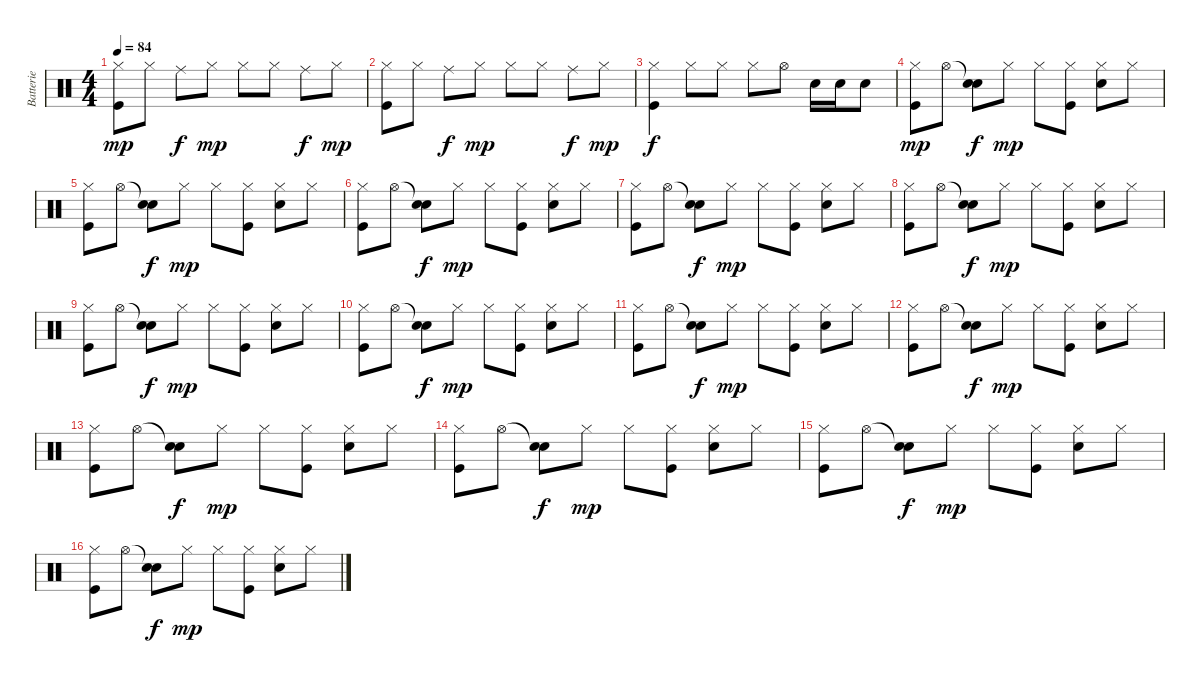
\track ("Batterie" "Batterie") {instrument percussion}
\staff {score}
\articulation defaults
\ts (4 4)
\tempo 84
\clef neutral
\ks c
("Hi-Hat (closed)" "Kick (hit)").8{dy mp} "Hi-Hat (closed)".8 "Ride (middle)".8{dy f} "Hi-Hat (closed)".8{dy mp} "Hi-Hat (closed)".8 "Hi-Hat (closed)".8 "Ride (middle)".8{dy f} "Hi-Hat (closed)".8{dy mp} |
("Hi-Hat (closed)" "Kick (hit)").8 "Hi-Hat (closed)".8 "Ride (middle)".8{dy f} "Hi-Hat (closed)".8{dy mp} "Hi-Hat (closed)".8 "Hi-Hat (closed)".8 "Ride (middle)".8{dy f} "Hi-Hat (closed)".8{dy mp} |
("Hi-Hat (closed)" "Kick (hit)").4{dy f} "Hi-Hat (closed)".8 "Hi-Hat (closed)".8 "Hi-Hat (closed)".8 "Hi-Hat (open)".8 "Snare (hit) 2".16 "Snare (hit) 2".16 "Snare (hit) 2".8 |
("Hi-Hat (closed)" "Kick (hit)").8{dy mp} "Hi-Hat (open)".8 ("Snare (hit)"{t} "Snare (hit) 2").8{dy f} "Hi-Hat (closed)".8{dy mp} "Hi-Hat (closed)".8 ("Hi-Hat (closed)" "Kick (hit)").8 ("Hi-Hat (closed)" "Snare (hit) 2").8 "Hi-Hat (closed)".8 |
("Hi-Hat (closed)" "Kick (hit)").8 "Hi-Hat (open)".8 ("Snare (hit)"{t} "Snare (hit) 2").8{dy f} "Hi-Hat (closed)".8{dy mp} "Hi-Hat (closed)".8 ("Hi-Hat (closed)" "Kick (hit)").8 ("Hi-Hat (closed)" "Snare (hit) 2").8 "Hi-Hat (closed)".8 |
("Hi-Hat (closed)" "Kick (hit)").8 "Hi-Hat (open)".8 ("Snare (hit)"{t} "Snare (hit) 2").8{dy f} "Hi-Hat (closed)".8{dy mp} "Hi-Hat (closed)".8 ("Hi-Hat (closed)" "Kick (hit)").8 ("Hi-Hat (closed)" "Snare (hit) 2").8 "Hi-Hat (closed)".8 |
("Hi-Hat (closed)" "Kick (hit)").8 "Hi-Hat (open)".8 ("Snare (hit)"{t} "Snare (hit) 2").8{dy f} "Hi-Hat (closed)".8{dy mp} "Hi-Hat (closed)".8 ("Hi-Hat (closed)" "Kick (hit)").8 ("Hi-Hat (closed)" "Snare (hit) 2").8 "Hi-Hat (closed)".8 |
("Hi-Hat (closed)" "Kick (hit)").8 "Hi-Hat (open)".8 ("Snare (hit)"{t} "Snare (hit) 2").8{dy f} "Hi-Hat (closed)".8{dy mp} "Hi-Hat (closed)".8 ("Hi-Hat (closed)" "Kick (hit)").8 ("Hi-Hat (closed)" "Snare (hit) 2").8 "Hi-Hat (closed)".8 |
("Hi-Hat (closed)" "Kick (hit)").8 "Hi-Hat (open)".8 ("Snare (hit)"{t} "Snare (hit) 2").8{dy f} "Hi-Hat (closed)".8{dy mp} "Hi-Hat (closed)".8 ("Hi-Hat (closed)" "Kick (hit)").8 ("Hi-Hat (closed)" "Snare (hit) 2").8 "Hi-Hat (closed)".8 |
("Hi-Hat (closed)" "Kick (hit)").8 "Hi-Hat (open)".8 ("Snare (hit)"{t} "Snare (hit) 2").8{dy f} "Hi-Hat (closed)".8{dy mp} "Hi-Hat (closed)".8 ("Hi-Hat (closed)" "Kick (hit)").8 ("Hi-Hat (closed)" "Snare (hit) 2").8 "Hi-Hat (closed)".8 |
("Hi-Hat (closed)" "Kick (hit)").8 "Hi-Hat (open)".8 ("Snare (hit)"{t} "Snare (hit) 2").8{dy f} "Hi-Hat (closed)".8{dy mp} "Hi-Hat (closed)".8 ("Hi-Hat (closed)" "Kick (hit)").8 ("Hi-Hat (closed)" "Snare (hit) 2").8 "Hi-Hat (closed)".8 |
("Hi-Hat (closed)" "Kick (hit)").8 "Hi-Hat (open)".8 ("Snare (hit)"{t} "Snare (hit) 2").8{dy f} "Hi-Hat (closed)".8{dy mp} "Hi-Hat (closed)".8 ("Hi-Hat (closed)" "Kick (hit)").8 ("Hi-Hat (closed)" "Snare (hit) 2").8 "Hi-Hat (closed)".8 |
("Hi-Hat (closed)" "Kick (hit)").8 "Hi-Hat (open)".8 ("Snare (hit)"{t} "Snare (hit) 2").8{dy f} "Hi-Hat (closed)".8{dy mp} "Hi-Hat (closed)".8 ("Hi-Hat (closed)" "Kick (hit)").8 ("Hi-Hat (closed)" "Snare (hit) 2").8 "Hi-Hat (closed)".8 |
("Hi-Hat (closed)" "Kick (hit)").8 "Hi-Hat (open)".8 ("Snare (hit)"{t} "Snare (hit) 2").8{dy f} "Hi-Hat (closed)".8{dy mp} "Hi-Hat (closed)".8 ("Hi-Hat (closed)" "Kick (hit)").8 ("Hi-Hat (closed)" "Snare (hit) 2").8 "Hi-Hat (closed)".8 |
("Hi-Hat (closed)" "Kick (hit)").8 "Hi-Hat (open)".8 ("Snare (hit)"{t} "Snare (hit) 2").8{dy f} "Hi-Hat (closed)".8{dy mp} "Hi-Hat (closed)".8 ("Hi-Hat (closed)" "Kick (hit)").8 ("Hi-Hat (closed)" "Snare (hit) 2").8 "Hi-Hat (closed)".8 |
("Hi-Hat (closed)" "Kick (hit)").8 "Hi-Hat (open)".8 ("Snare (hit)"{t} "Snare (hit) 2").8{dy f} "Hi-Hat (closed)".8{dy mp} "Hi-Hat (closed)".8 ("Hi-Hat (closed)" "Kick (hit)").8 ("Hi-Hat (closed)" "Snare (hit) 2").8 "Hi-Hat (closed)".8
